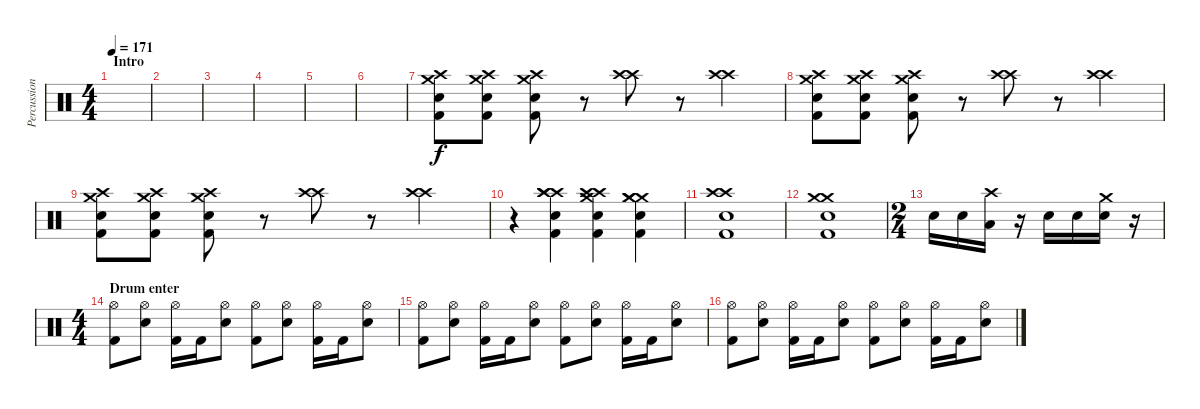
\track ("Percussions" "Percussion") {instrument percussion}
\staff {score}
\articulation defaults
\ts (4 4)
\section ("" "Intro ")
\tempo 171
\clef neutral
\ks c
|
|
|
|
|
|
("Crash medium (hit)" "Crash high (hit)" "Electric Snare (hit)" "Kick (hit) 2").8 ("Crash medium (hit)" "Crash high (hit)" "Electric Snare (hit)" "Kick (hit) 2").8 ("Crash medium (hit)" "Crash high (hit)" "Electric Snare (hit)" "Kick (hit) 2").8 r.8 ("Crash high (hit)" "Crash high (hit)").8 r.8 ("Crash high (hit)" "Crash high (hit)").4 |
("Crash medium (hit)" "Crash high (hit)" "Electric Snare (hit)" "Kick (hit) 2").8 ("Crash medium (hit)" "Crash high (hit)" "Electric Snare (hit)" "Kick (hit) 2").8 ("Crash medium (hit)" "Crash high (hit)" "Electric Snare (hit)" "Kick (hit) 2").8 r.8 ("Crash high (hit)" "Crash high (hit)").8 r.8 ("Crash high (hit)" "Crash high (hit)").4 |
("Crash medium (hit)" "Crash high (hit)" "Electric Snare (hit)" "Kick (hit) 2").8 ("Crash medium (hit)" "Crash high (hit)" "Electric Snare (hit)" "Kick (hit) 2").8 ("Crash medium (hit)" "Crash high (hit)" "Electric Snare (hit)" "Kick (hit) 2").8 r.8 ("Crash high (hit)" "Crash high (hit)").8 r.8 ("Crash high (hit)" "Crash high (hit)").4 |
r.4 ("Crash high (hit)" "Crash high (hit)" "Crash high (hit)" "Electric Snare (hit)" "Kick (hit) 2").4 ("Crash high (hit)" "Crash high (hit)" "Crash medium (hit)" "Electric Snare (hit)" "Kick (hit) 2").4 ("Crash medium (hit)" "Crash medium (hit)" "Crash medium (hit)" "Electric Snare (hit)" "Kick (hit) 2").4 |
("Crash high (hit)" "Crash high (hit)" "Electric Snare (hit)" "Kick (hit) 2").1 |
("Crash medium (hit)" "Crash medium (hit)" "Electric Snare (hit)" "Kick (hit) 2").1 |
\ts (2 4)
"Electric Snare (hit)".16 "Electric Snare (hit)".16 ("Crash high (hit)" "Low Floor Tom (hit)").16 r.16 "Electric Snare (hit)".16 "Electric Snare (hit)".16 ("Crash medium (hit)" "Electric Snare (hit)").16 r.16 |
\ts (4 4)
\section ("" "Drum enter")
("Hi-Hat (open)" "Kick (hit) 2").8 ("Hi-Hat (open)" "Electric Snare (hit)").8 ("Hi-Hat (open)" "Kick (hit) 2").16 "Kick (hit) 2".16 ("Hi-Hat (open)" "Electric Snare (hit)").8 ("Hi-Hat (open)" "Kick (hit) 2").8 ("Hi-Hat (open)" "Electric Snare (hit)").8 ("Hi-Hat (open)" "Kick (hit) 2").16 "Kick (hit) 2".16 ("Hi-Hat (open)" "Electric Snare (hit)").8 |
("Hi-Hat (open)" "Kick (hit) 2").8 ("Hi-Hat (open)" "Electric Snare (hit)").8 ("Hi-Hat (open)" "Kick (hit) 2").16 "Kick (hit) 2".16 ("Hi-Hat (open)" "Electric Snare (hit)").8 ("Hi-Hat (open)" "Kick (hit) 2").8 ("Hi-Hat (open)" "Electric Snare (hit)").8 ("Hi-Hat (open)" "Kick (hit) 2").16 "Kick (hit) 2".16 ("Hi-Hat (open)" "Electric Snare (hit)").8 |
("Hi-Hat (open)" "Kick (hit) 2").8 ("Hi-Hat (open)" "Electric Snare (hit)").8 ("Hi-Hat (open)" "Kick (hit) 2").16 "Kick (hit) 2".16 ("Hi-Hat (open)" "Electric Snare (hit)").8 ("Hi-Hat (open)" "Kick (hit) 2").8 ("Hi-Hat (open)" "Electric Snare (hit)").8 ("Hi-Hat (open)" "Kick (hit) 2").16 "Kick (hit) 2".16 ("Hi-Hat (open)" "Electric Snare (hit)").8
